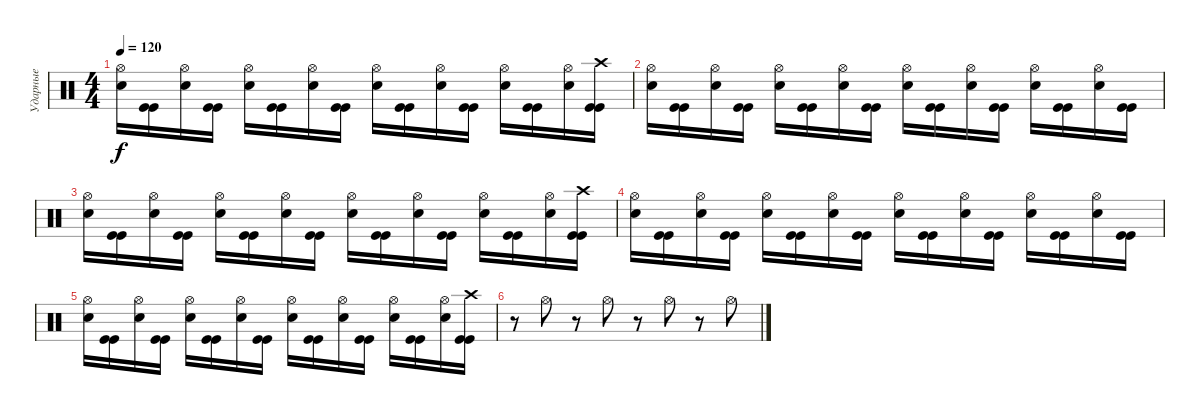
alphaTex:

\track ("Ударные" "Ударные") {instrument percussion}
\staff {score}
\articulation defaults
\ts (4 4)
\tempo 120
\clef neutral
\ks c
("Hi-Hat (open)" "Snare (hit) 2").16{dy f} ("Kick (hit)" "Kick (hit)").16 ("Hi-Hat (open)" "Snare (hit) 2").16 ("Kick (hit)" "Kick (hit)").16 ("Hi-Hat (open)" "Snare (hit) 2").16 ("Kick (hit)" "Kick (hit)").16 ("Hi-Hat (open)" "Snare (hit) 2").16 ("Kick (hit)" "Kick (hit)").16 ("Hi-Hat (open)" "Snare (hit) 2").16 ("Kick (hit)" "Kick (hit)").16 ("Hi-Hat (open)" "Snare (hit) 2").16 ("Kick (hit)" "Kick (hit)").16 ("Hi-Hat (open)" "Snare (hit) 2").16 ("Kick (hit)" "Kick (hit)").16 ("Hi-Hat (open)" "Snare (hit) 2").16 ("Crash high (hit)" "Kick (hit)" "Kick (hit)").16 |
("Hi-Hat (open)" "Snare (hit) 2").16 ("Kick (hit)" "Kick (hit)").16 ("Hi-Hat (open)" "Snare (hit) 2").16 ("Kick (hit)" "Kick (hit)").16 ("Hi-Hat (open)" "Snare (hit) 2").16 ("Kick (hit)" "Kick (hit)").16 ("Hi-Hat (open)" "Snare (hit) 2").16 ("Kick (hit)" "Kick (hit)").16 ("Hi-Hat (open)" "Snare (hit) 2").16 ("Kick (hit)" "Kick (hit)").16 ("Hi-Hat (open)" "Snare (hit) 2").16 ("Kick (hit)" "Kick (hit)").16 ("Hi-Hat (open)" "Snare (hit) 2").16 ("Kick (hit)" "Kick (hit)").16 ("Hi-Hat (open)" "Snare (hit) 2").16 ("Kick (hit)" "Kick (hit)").16 |
("Hi-Hat (open)" "Snare (hit) 2").16 ("Kick (hit)" "Kick (hit)").16 ("Hi-Hat (open)" "Snare (hit) 2").16 ("Kick (hit)" "Kick (hit)").16 ("Hi-Hat (open)" "Snare (hit) 2").16 ("Kick (hit)" "Kick (hit)").16 ("Hi-Hat (open)" "Snare (hit) 2").16 ("Kick (hit)" "Kick (hit)").16 ("Hi-Hat (open)" "Snare (hit) 2").16 ("Kick (hit)" "Kick (hit)").16 ("Hi-Hat (open)" "Snare (hit) 2").16 ("Kick (hit)" "Kick (hit)").16 ("Hi-Hat (open)" "Snare (hit) 2").16 ("Kick (hit)" "Kick (hit)").16 ("Hi-Hat (open)" "Snare (hit) 2").16 ("Crash high (hit)" "Kick (hit)" "Kick (hit)").16 |
("Hi-Hat (open)" "Snare (hit) 2").16 ("Kick (hit)" "Kick (hit)").16 ("Hi-Hat (open)" "Snare (hit) 2").16 ("Kick (hit)" "Kick (hit)").16 ("Hi-Hat (open)" "Snare (hit) 2").16 ("Kick (hit)" "Kick (hit)").16 ("Hi-Hat (open)" "Snare (hit) 2").16 ("Kick (hit)" "Kick (hit)").16 ("Hi-Hat (open)" "Snare (hit) 2").16 ("Kick (hit)" "Kick (hit)").16 ("Hi-Hat (open)" "Snare (hit) 2").16 ("Kick (hit)" "Kick (hit)").16 ("Hi-Hat (open)" "Snare (hit) 2").16 ("Kick (hit)" "Kick (hit)").16 ("Hi-Hat (open)" "Snare (hit) 2").16 ("Kick (hit)" "Kick (hit)").16 |
("Hi-Hat (open)" "Snare (hit) 2").16 ("Kick (hit)" "Kick (hit)").16 ("Hi-Hat (open)" "Snare (hit) 2").16 ("Kick (hit)" "Kick (hit)").16 ("Hi-Hat (open)" "Snare (hit) 2").16 ("Kick (hit)" "Kick (hit)").16 ("Hi-Hat (open)" "Snare (hit) 2").16 ("Kick (hit)" "Kick (hit)").16 ("Hi-Hat (open)" "Snare (hit) 2").16 ("Kick (hit)" "Kick (hit)").16 ("Hi-Hat (open)" "Snare (hit) 2").16 ("Kick (hit)" "Kick (hit)").16 ("Hi-Hat (open)" "Snare (hit) 2").16 ("Kick (hit)" "Kick (hit)").16 ("Hi-Hat (open)" "Snare (hit) 2").16 ("Crash high (hit)" "Kick (hit)" "Kick (hit)").16 |
r.8 "Hi-Hat (open)".8 r.8 "Hi-Hat (open)".8 r.8 "Hi-Hat (open)".8 r.8 "Hi-Hat (open)".8
